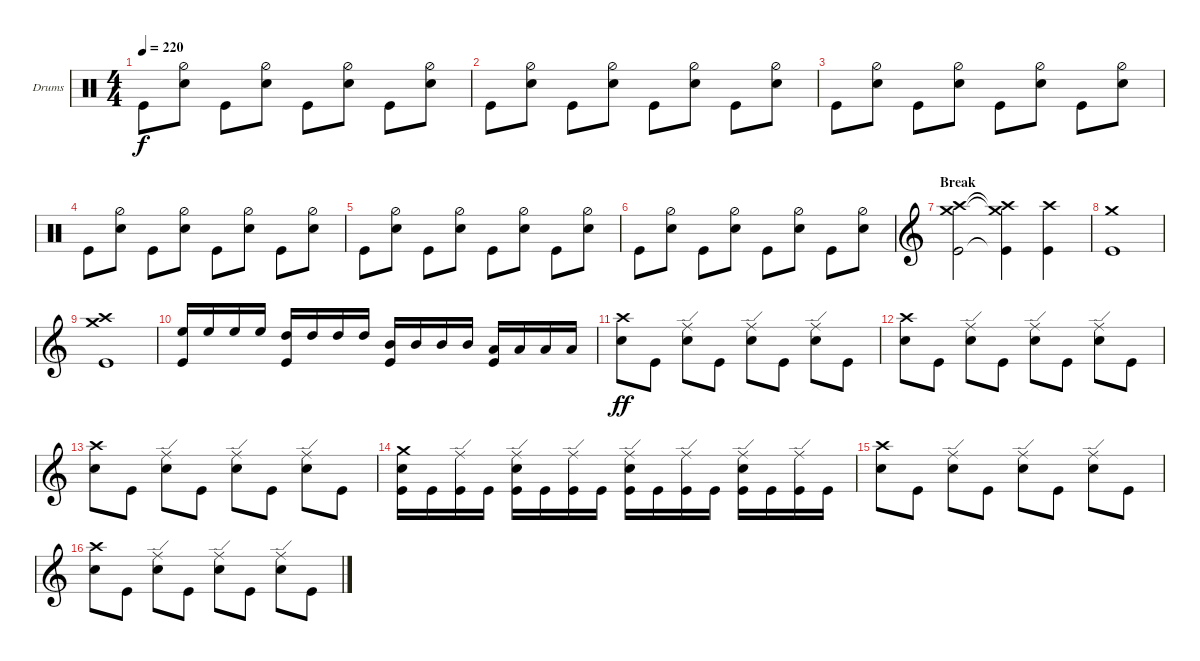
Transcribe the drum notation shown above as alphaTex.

\defaultSystemsLayout 4
\bracketExtendMode groupsimilarinstruments
\firstSystemTrackNameOrientation horizontal
\otherSystemsTrackNameOrientation horizontal
\track ("Drumkit" "Drums") {instrument percussion}
\staff {score}
\articulation defaults
\ts (4 4)
\tempo 220
\clef neutral
\ks c "Kick (hit)".8{dy f}
("Snare (hit) 2" "Hi-Hat (half)").8 "Kick (hit)".8 ("Snare (hit) 2" "Hi-Hat (half)").8 "Kick (hit)".8 ("Snare (hit) 2" "Hi-Hat (half)").8 "Kick (hit)".8 ("Snare (hit) 2" "Hi-Hat (half)").8 |
"Kick (hit)".8 ("Snare (hit) 2" "Hi-Hat (half)").8 "Kick (hit)".8 ("Snare (hit) 2" "Hi-Hat (half)").8 "Kick (hit)".8 ("Snare (hit) 2" "Hi-Hat (half)").8 "Kick (hit)".8 ("Snare (hit) 2" "Hi-Hat (half)").8 |
"Kick (hit)".8 ("Snare (hit) 2" "Hi-Hat (half)").8 "Kick (hit)".8 ("Snare (hit) 2" "Hi-Hat (half)").8 "Kick (hit)".8 ("Snare (hit) 2" "Hi-Hat (half)").8 "Kick (hit)".8 ("Snare (hit) 2" "Hi-Hat (half)").8 |
"Kick (hit)".8 ("Snare (hit) 2" "Hi-Hat (half)").8 "Kick (hit)".8 ("Snare (hit) 2" "Hi-Hat (half)").8 "Kick (hit)".8 ("Snare (hit) 2" "Hi-Hat (half)").8 "Kick (hit)".8 ("Snare (hit) 2" "Hi-Hat (half)").8 |
"Kick (hit)".8 ("Snare (hit) 2" "Hi-Hat (half)").8 "Kick (hit)".8 ("Snare (hit) 2" "Hi-Hat (half)").8 "Kick (hit)".8 ("Snare (hit) 2" "Hi-Hat (half)").8 "Kick (hit)".8 ("Snare (hit) 2" "Hi-Hat (half)").8 |
"Kick (hit)".8 ("Snare (hit) 2" "Hi-Hat (half)").8 "Kick (hit)".8 ("Snare (hit) 2" "Hi-Hat (half)").8 "Kick (hit)".8 ("Snare (hit) 2" "Hi-Hat (half)").8 "Kick (hit)".8 ("Snare (hit) 2" "Hi-Hat (half)").8 |
\section ("" "Break")
\clef g2
("Kick (hit)" "Crash high (hit)" "Crash medium (hit)").2 ("Kick (hit)"{t} "Crash high (hit)"{t} "Crash medium (hit)"{t}).4 ("Kick (hit)" "Crash high (hit)").4 |
("Kick (hit)" "Crash medium (hit)").1 |
("Kick (hit)" "Crash high (hit)" "Crash medium (hit)").1 |
("High Floor Tom (hit)" "Kick (hit)").16 "High Floor Tom (hit)".16 "High Floor Tom (hit)".16 "High Floor Tom (hit)".16 ("High Tom (hit)" "Kick (hit)").16 "High Tom (hit)".16 "High Tom (hit)".16 "High Tom (hit)".16 ("Mid Tom (hit)" "Kick (hit)").16 "Mid Tom (hit)".16 "Mid Tom (hit)".16 "Mid Tom (hit)".16 ("Low Tom (hit)" "Kick (hit)").16 "Low Tom (hit)".16 "Low Tom (hit)".16 "Low Tom (hit)".16 |
("Crash high (hit)" "Snare (hit) 2").8{dy ff} "Kick (hit)".8 ("Ride (edge)" "Snare (hit) 2").8 "Kick (hit)".8 ("Ride (edge)" "Snare (hit) 2").8 "Kick (hit)".8 ("Ride (edge)" "Snare (hit) 2").8 "Kick (hit)".8 |
("Crash high (hit)" "Snare (hit) 2").8 "Kick (hit)".8 ("Ride (edge)" "Snare (hit) 2").8 "Kick (hit)".8 ("Ride (edge)" "Snare (hit) 2").8 "Kick (hit)".8 ("Ride (edge)" "Snare (hit) 2").8 "Kick (hit)".8 |
("Crash high (hit)" "Snare (hit) 2").8 "Kick (hit)".8 ("Ride (edge)" "Snare (hit) 2").8 "Kick (hit)".8 ("Ride (edge)" "Snare (hit) 2").8 "Kick (hit)".8 ("Ride (edge)" "Snare (hit) 2").8 "Kick (hit)".8 |
("Crash medium (hit)" "Snare (hit) 2" "Kick (hit)").16 "Kick (hit)".16 ("Ride (edge)" "Kick (hit)").16 "Kick (hit)".16 ("Ride (edge)" "Snare (hit) 2" "Kick (hit)").16 "Kick (hit)".16 ("Ride (edge)" "Kick (hit)").16 "Kick (hit)".16 ("Ride (edge)" "Snare (hit) 2" "Kick (hit)").16 "Kick (hit)".16 ("Ride (edge)" "Kick (hit)").16 "Kick (hit)".16 ("Ride (edge)" "Snare (hit) 2" "Kick (hit)").16 "Kick (hit)".16 ("Ride (edge)" "Kick (hit)").16 "Kick (hit)".16 |
("Crash high (hit)" "Snare (hit) 2").8 "Kick (hit)".8 ("Ride (edge)" "Snare (hit) 2").8 "Kick (hit)".8 ("Ride (edge)" "Snare (hit) 2").8 "Kick (hit)".8 ("Ride (edge)" "Snare (hit) 2").8 "Kick (hit)".8 |
("Crash high (hit)" "Snare (hit) 2").8 "Kick (hit)".8 ("Ride (edge)" "Snare (hit) 2").8 "Kick (hit)".8 ("Ride (edge)" "Snare (hit) 2").8 "Kick (hit)".8 ("Ride (edge)" "Snare (hit) 2").8 "Kick (hit)".8
